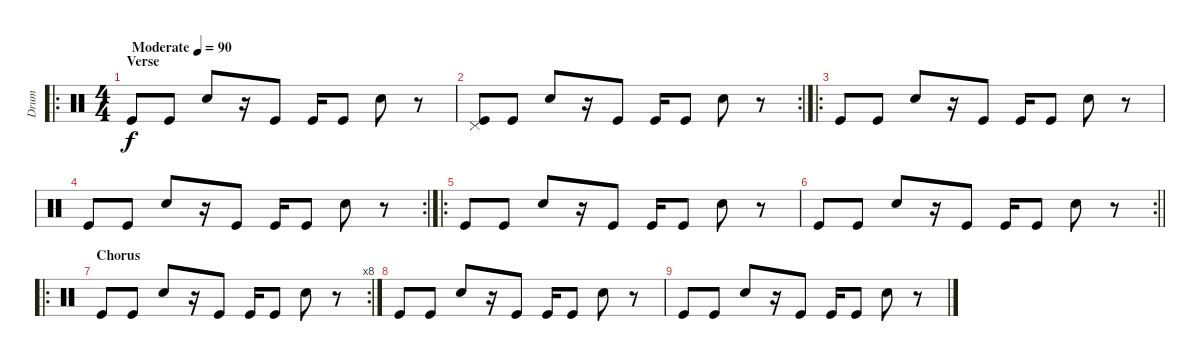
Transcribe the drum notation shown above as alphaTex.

\track ("Drum" "Drum") {instrument percussion}
\staff {score}
\articulation defaults
\ro
\ts (4 4)
\section ("" "Verse")
\tempo (90 "Moderate")
\clef neutral
\ks c "Kick (hit)".8{dy f} "Kick (hit)".8 "Electric Snare (hit)".8
r.16 "Kick (hit)".8 "Kick (hit)".16 "Kick (hit)".8 "Electric Snare (hit)".8 r.8 |
\rc 2
("Kick (hit)" "Pedal Hi-Hat (hit)").8 "Kick (hit)".8 "Electric Snare (hit)".8 r.16 "Kick (hit)".8 "Kick (hit)".16 "Kick (hit)".8 "Electric Snare (hit)".8 r.8 |
\ro "Kick (hit)".8 "Kick (hit)".8 "Electric Snare (hit)".8
r.16 "Kick (hit)".8 "Kick (hit)".16 "Kick (hit)".8 "Electric Snare (hit)".8 r.8 |
\rc 2 "Kick (hit)".8 "Kick (hit)".8 "Electric Snare (hit)".8
r.16 "Kick (hit)".8 "Kick (hit)".16 "Kick (hit)".8 "Electric Snare (hit)".8 r.8 |
\ro "Kick (hit)".8 "Kick (hit)".8 "Electric Snare (hit)".8
r.16 "Kick (hit)".8 "Kick (hit)".16 "Kick (hit)".8 "Electric Snare (hit)".8 r.8 |
\rc 2
\barLineRight lightlight "Kick (hit)".8 "Kick (hit)".8 "Electric Snare (hit)".8
r.16 "Kick (hit)".8 "Kick (hit)".16 "Kick (hit)".8 "Electric Snare (hit)".8 r.8 |
\ro
\rc 8
\section ("" "Chorus")
"Kick (hit)".8 "Kick (hit)".8 "Electric Snare (hit)".8 r.16 "Kick (hit)".8 "Kick (hit)".16 "Kick (hit)".8 "Electric Snare (hit)".8 r.8 |
"Kick (hit)".8 "Kick (hit)".8 "Electric Snare (hit)".8 r.16 "Kick (hit)".8 "Kick (hit)".16 "Kick (hit)".8 "Electric Snare (hit)".8 r.8 |
"Kick (hit)".8 "Kick (hit)".8 "Electric Snare (hit)".8 r.16 "Kick (hit)".8 "Kick (hit)".16 "Kick (hit)".8 "Electric Snare (hit)".8 r.8
